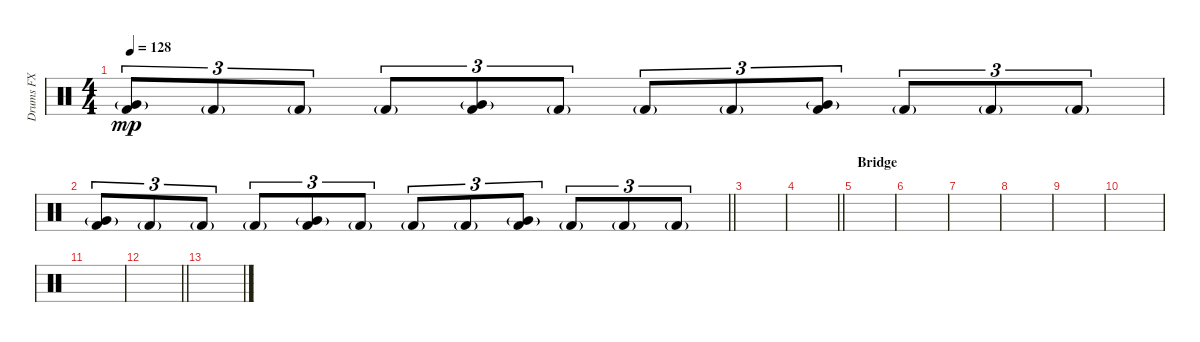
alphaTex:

\track ("Drums FX" "Drums FX") {instrument percussion}
\staff {score}
\articulation defaults
\ts (4 4)
\tempo 128
\clef neutral
\ks c
("Very Low Tom (hit)"{g} "Kick (hit) 2").8{tu (3 2) dy mp} "Kick (hit) 2"{g}.8{tu (3 2)} "Kick (hit) 2"{g}.8{tu (3 2)} "Kick (hit) 2"{g}.8{tu (3 2)} ("Very Low Tom (hit)"{g} "Kick (hit) 2").8{tu (3 2)} "Kick (hit) 2"{g}.8{tu (3 2)} "Kick (hit) 2"{g}.8{tu (3 2)} "Kick (hit) 2"{g}.8{tu (3 2)} ("Very Low Tom (hit)"{g} "Kick (hit) 2").8{tu (3 2)} "Kick (hit) 2"{g}.8{tu (3 2)} "Kick (hit) 2"{g}.8{tu (3 2)} "Kick (hit) 2"{g}.8{tu (3 2)} |
\barLineRight lightlight
("Very Low Tom (hit)"{g} "Kick (hit) 2").8{tu (3 2)} "Kick (hit) 2"{g}.8{tu (3 2)} "Kick (hit) 2"{g}.8{tu (3 2)} "Kick (hit) 2"{g}.8{tu (3 2)} ("Very Low Tom (hit)"{g} "Kick (hit) 2").8{tu (3 2)} "Kick (hit) 2"{g}.8{tu (3 2)} "Kick (hit) 2"{g}.8{tu (3 2)} "Kick (hit) 2"{g}.8{tu (3 2)} ("Very Low Tom (hit)"{g} "Kick (hit) 2").8{tu (3 2)} "Kick (hit) 2"{g}.8{tu (3 2)} "Kick (hit) 2"{g}.8{tu (3 2)} "Kick (hit) 2"{g}.8{tu (3 2)} |
\section ("" "")
|
\barLineRight lightlight
|
\section ("" "Bridge")
|
|
|
|
|
|
|
\barLineRight lightlight
|
\section ("" "")
